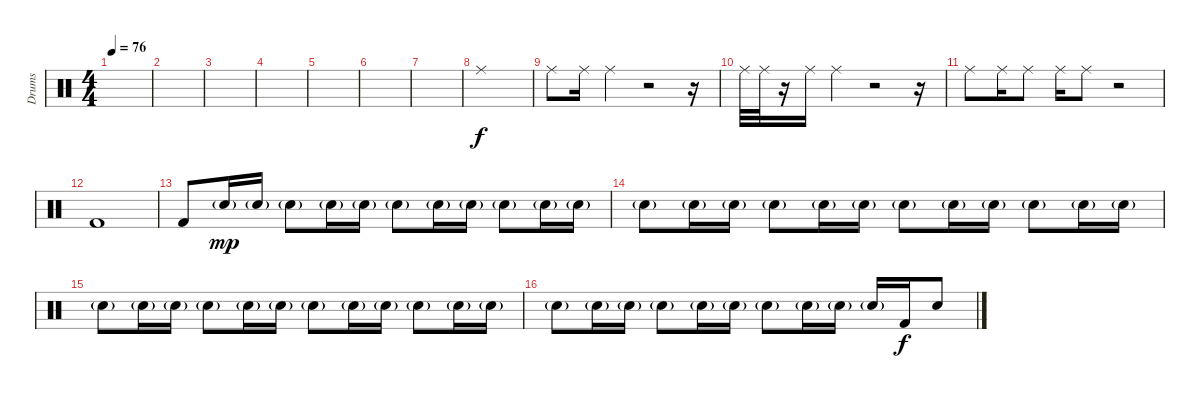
\track ("Drums" "Drums") {instrument percussion}
\staff {score}
\articulation defaults
\ts (4 4)
\tempo 76
\clef neutral
\ks c
|
|
|
|
|
|
|
"Ride (middle)".1 |
"Ride (middle)".8 "Ride (middle)".16 "Ride (middle)".4 r.2 r.16 |
"Ride (middle)".32 "Ride (middle)".32 r.16 "Ride (middle)".16 "Ride (middle)".4 r.2 r.16 |
"Ride (middle)".8 "Ride (middle)".16 "Ride (middle)".8 "Ride (middle)".16 "Ride (middle)".8 r.2 |
"Kick (hit) 2".1 |
"Kick (hit) 2".8 "Snare (hit) 2"{g}.16{dy mp} "Snare (hit) 2"{g}.16 "Snare (hit) 2"{g}.8 "Snare (hit) 2"{g}.16 "Snare (hit) 2"{g}.16 "Snare (hit) 2"{g}.8 "Snare (hit) 2"{g}.16 "Snare (hit) 2"{g}.16 "Snare (hit) 2"{g}.8 "Snare (hit) 2"{g}.16 "Snare (hit) 2"{g}.16 |
"Snare (hit) 2"{g}.8 "Snare (hit) 2"{g}.16 "Snare (hit) 2"{g}.16 "Snare (hit) 2"{g}.8 "Snare (hit) 2"{g}.16 "Snare (hit) 2"{g}.16 "Snare (hit) 2"{g}.8 "Snare (hit) 2"{g}.16 "Snare (hit) 2"{g}.16 "Snare (hit) 2"{g}.8 "Snare (hit) 2"{g}.16 "Snare (hit) 2"{g}.16 |
"Snare (hit) 2"{g}.8 "Snare (hit) 2"{g}.16 "Snare (hit) 2"{g}.16 "Snare (hit) 2"{g}.8 "Snare (hit) 2"{g}.16 "Snare (hit) 2"{g}.16 "Snare (hit) 2"{g}.8 "Snare (hit) 2"{g}.16 "Snare (hit) 2"{g}.16 "Snare (hit) 2"{g}.8 "Snare (hit) 2"{g}.16 "Snare (hit) 2"{g}.16 |
"Snare (hit) 2"{g}.8 "Snare (hit) 2"{g}.16 "Snare (hit) 2"{g}.16 "Snare (hit) 2"{g}.8 "Snare (hit) 2"{g}.16 "Snare (hit) 2"{g}.16 "Snare (hit) 2"{g}.8 "Snare (hit) 2"{g}.16 "Snare (hit) 2"{g}.16 "Snare (hit) 2"{g}.16 "Kick (hit) 2".16{dy f} "Snare (hit) 2".8
